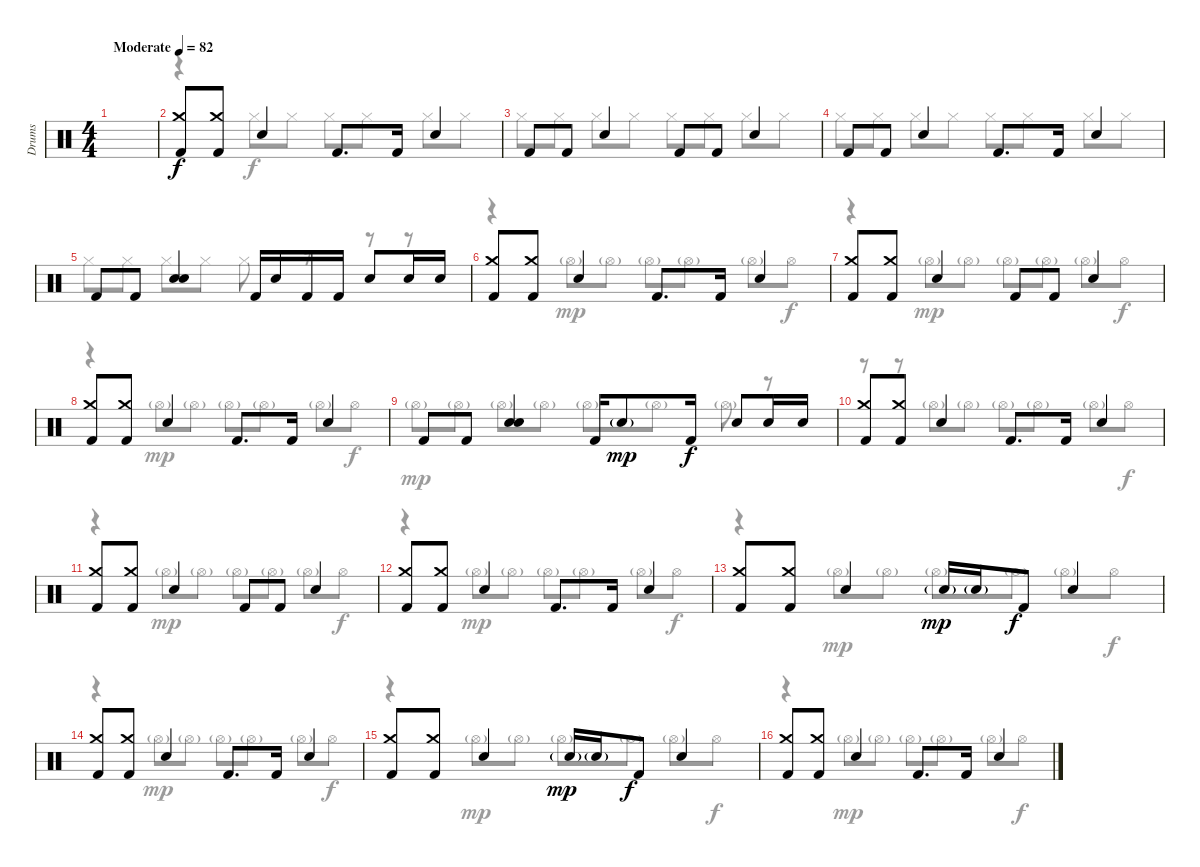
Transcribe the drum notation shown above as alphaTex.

\track ("Drums" "Drums") {instrument percussion}
\staff {score}
\articulation defaults
\voice
\ts (4 4)
\tempo (82 "Moderate")
\clef neutral
\ks c
|
("Crash medium (hit)" "Kick (hit) 2").8 ("Crash medium (hit)" "Kick (hit) 2").8 "Snare (hit) 2".4 "Kick (hit) 2".8{d} "Kick (hit) 2".16 "Snare (hit) 2".4 |
"Kick (hit) 2".8 "Kick (hit) 2".8 "Snare (hit) 2".4 "Kick (hit) 2".8 "Kick (hit) 2".8 "Snare (hit) 2".4 |
"Kick (hit) 2".8 "Kick (hit) 2".8 "Snare (hit) 2".4 "Kick (hit) 2".8{d} "Kick (hit) 2".16 "Snare (hit) 2".4 |
"Kick (hit) 2".8 "Kick (hit) 2".8 ("Snare (hit) 2" "Snare (hit) 2").4 "Kick (hit) 2".16 "Snare (hit) 2".16 "Kick (hit) 2".16 "Kick (hit) 2".16 "Snare (hit) 2".8 "Snare (hit) 2".16 "Snare (hit) 2".16 |
("Crash medium (hit)" "Kick (hit) 2").8 ("Crash medium (hit)" "Kick (hit) 2").8 "Snare (hit) 2".4 "Kick (hit) 2".8{d} "Kick (hit) 2".16 "Snare (hit) 2".4 |
("Crash medium (hit)" "Kick (hit) 2").8 ("Crash medium (hit)" "Kick (hit) 2").8 "Snare (hit) 2".4 "Kick (hit) 2".8 "Kick (hit) 2".8 "Snare (hit) 2".4 |
("Crash medium (hit)" "Kick (hit) 2").8 ("Crash medium (hit)" "Kick (hit) 2").8 "Snare (hit) 2".4 "Kick (hit) 2".8{d} "Kick (hit) 2".16 "Snare (hit) 2".4 |
"Kick (hit) 2".8 "Kick (hit) 2".8 ("Snare (hit) 2" "Snare (hit) 2").4 "Kick (hit) 2".16 "Snare (hit) 2"{g}.8{dy mp} "Kick (hit) 2".16{dy f} "Snare (hit) 2".8 "Snare (hit) 2".16 "Snare (hit) 2".16 |
("Crash medium (hit)" "Kick (hit) 2").8 ("Crash medium (hit)" "Kick (hit) 2").8 "Snare (hit) 2".4 "Kick (hit) 2".8{d} "Kick (hit) 2".16 "Snare (hit) 2".4 |
("Crash medium (hit)" "Kick (hit) 2").8 ("Crash medium (hit)" "Kick (hit) 2").8 "Snare (hit) 2".4 "Kick (hit) 2".8 "Kick (hit) 2".8 "Snare (hit) 2".4 |
("Crash medium (hit)" "Kick (hit) 2").8 ("Crash medium (hit)" "Kick (hit) 2").8 "Snare (hit) 2".4 "Kick (hit) 2".8{d} "Kick (hit) 2".16 "Snare (hit) 2".4 |
("Crash medium (hit)" "Kick (hit) 2").8 ("Crash medium (hit)" "Kick (hit) 2").8 "Snare (hit) 2".4 "Snare (hit) 2"{g}.16{dy mp} "Snare (hit) 2"{g}.16 "Kick (hit) 2".8{dy f} "Snare (hit) 2".4 |
("Crash medium (hit)" "Kick (hit) 2").8 ("Crash medium (hit)" "Kick (hit) 2").8 "Snare (hit) 2".4 "Kick (hit) 2".8{d} "Kick (hit) 2".16 "Snare (hit) 2".4 |
("Crash medium (hit)" "Kick (hit) 2").8 ("Crash medium (hit)" "Kick (hit) 2").8 "Snare (hit) 2".4 "Snare (hit) 2"{g}.16{dy mp} "Snare (hit) 2"{g}.16 "Kick (hit) 2".8{dy f} "Snare (hit) 2".4 |
("Crash medium (hit)" "Kick (hit) 2").8 ("Crash medium (hit)" "Kick (hit) 2").8 "Snare (hit) 2".4 "Kick (hit) 2".8{d} "Kick (hit) 2".16 "Snare (hit) 2".4
\voice
\clef neutral
\ottava regular
\simile none
\ks c
|
r.4 "Hi-Hat (closed)".8 "Hi-Hat (closed)".8 "Hi-Hat (closed)".8 "Hi-Hat (closed)".8 "Hi-Hat (closed)".8 "Hi-Hat (closed)".8 |
"Hi-Hat (closed)".8 "Hi-Hat (closed)".8 "Hi-Hat (closed)".8 "Hi-Hat (closed)".8 "Hi-Hat (closed)".8 "Hi-Hat (closed)".8 "Hi-Hat (closed)".8 "Hi-Hat (closed)".8 |
"Hi-Hat (closed)".8 "Hi-Hat (closed)".8 "Hi-Hat (closed)".8 "Hi-Hat (closed)".8 "Hi-Hat (closed)".8 "Hi-Hat (closed)".8 "Hi-Hat (closed)".8 "Hi-Hat (closed)".8 |
"Hi-Hat (closed)".8 "Hi-Hat (closed)".8 "Hi-Hat (closed)".8 "Hi-Hat (closed)".8 "Hi-Hat (closed)".8 r.8 r.8 r.8 |
r.4 "Hi-Hat (open)"{g}.8{dy mp} "Hi-Hat (open)"{g}.8 "Hi-Hat (open)"{g}.8 "Hi-Hat (open)"{g}.8 "Hi-Hat (open)"{g}.8 "Hi-Hat (open)".8{dy f} |
r.4 "Hi-Hat (open)"{g}.8{dy mp} "Hi-Hat (open)"{g}.8 "Hi-Hat (open)"{g}.8 "Hi-Hat (open)"{g}.8 "Hi-Hat (open)"{g}.8 "Hi-Hat (open)".8{dy f} |
r.4 "Hi-Hat (open)"{g}.8{dy mp} "Hi-Hat (open)"{g}.8 "Hi-Hat (open)"{g}.8 "Hi-Hat (open)"{g}.8 "Hi-Hat (open)"{g}.8 "Hi-Hat (open)".8{dy f} |
"Hi-Hat (open)"{g}.8{dy mp} "Hi-Hat (open)"{g}.8 "Hi-Hat (open)"{g}.8 "Hi-Hat (open)"{g}.8 "Hi-Hat (open)"{g}.8 "Hi-Hat (open)"{g}.8 "Hi-Hat (open)"{g}.8 r.8 |
r.8 r.8 "Hi-Hat (open)"{g}.8 "Hi-Hat (open)"{g}.8 "Hi-Hat (open)"{g}.8 "Hi-Hat (open)"{g}.8 "Hi-Hat (open)"{g}.8 "Hi-Hat (open)".8{dy f} |
r.4 "Hi-Hat (open)"{g}.8{dy mp} "Hi-Hat (open)"{g}.8 "Hi-Hat (open)"{g}.8 "Hi-Hat (open)"{g}.8 "Hi-Hat (open)"{g}.8 "Hi-Hat (open)".8{dy f} |
r.4 "Hi-Hat (open)"{g}.8{dy mp} "Hi-Hat (open)"{g}.8 "Hi-Hat (open)"{g}.8 "Hi-Hat (open)"{g}.8 "Hi-Hat (open)"{g}.8 "Hi-Hat (open)".8{dy f} |
r.4 "Hi-Hat (open)"{g}.8{dy mp} "Hi-Hat (open)"{g}.8 "Hi-Hat (open)"{g}.8 "Hi-Hat (open)"{g}.8 "Hi-Hat (open)"{g}.8 "Hi-Hat (open)".8{dy f} |
r.4 "Hi-Hat (open)"{g}.8{dy mp} "Hi-Hat (open)"{g}.8 "Hi-Hat (open)"{g}.8 "Hi-Hat (open)"{g}.8 "Hi-Hat (open)"{g}.8 "Hi-Hat (open)".8{dy f} |
r.4 "Hi-Hat (open)"{g}.8{dy mp} "Hi-Hat (open)"{g}.8 "Hi-Hat (open)"{g}.8 "Hi-Hat (open)"{g}.8 "Hi-Hat (open)"{g}.8 "Hi-Hat (open)".8{dy f} |
r.4 "Hi-Hat (open)"{g}.8{dy mp} "Hi-Hat (open)"{g}.8 "Hi-Hat (open)"{g}.8 "Hi-Hat (open)"{g}.8 "Hi-Hat (open)"{g}.8 "Hi-Hat (open)".8{dy f}
